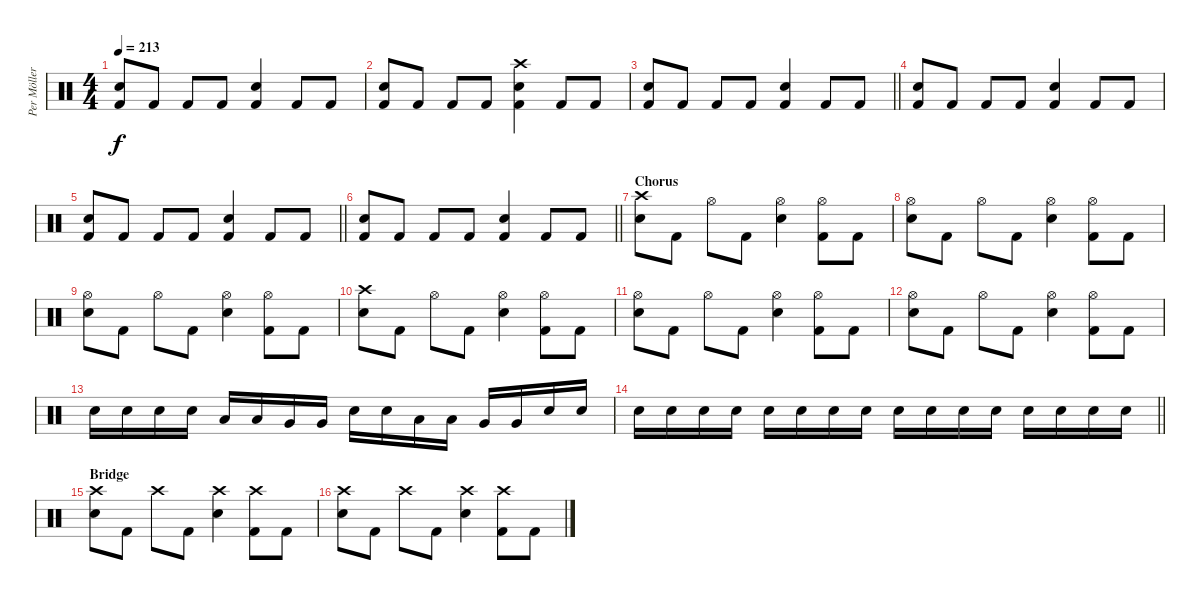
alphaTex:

\track ("Per Möller Jensen" "Per Möller") {instrument percussion}
\staff {score}
\articulation defaults
\ts (4 4)
\tempo 213
\clef neutral
\ks c
("Electric Snare (hit)" "Kick (hit) 2").8{dy f} "Kick (hit) 2".8 "Kick (hit) 2".8 "Kick (hit) 2".8 ("Electric Snare (hit)" "Kick (hit) 2").4 "Kick (hit) 2".8 "Kick (hit) 2".8 |
("Electric Snare (hit)" "Kick (hit) 2").8 "Kick (hit) 2".8 "Kick (hit) 2".8 "Kick (hit) 2".8 ("Crash high (hit)" "Electric Snare (hit)" "Kick (hit) 2").4 "Kick (hit) 2".8 "Kick (hit) 2".8 |
\barLineRight lightlight
("Electric Snare (hit)" "Kick (hit) 2").8 "Kick (hit) 2".8 "Kick (hit) 2".8 "Kick (hit) 2".8 ("Electric Snare (hit)" "Kick (hit) 2").4 "Kick (hit) 2".8 "Kick (hit) 2".8 |
("Electric Snare (hit)" "Kick (hit) 2").8 "Kick (hit) 2".8 "Kick (hit) 2".8 "Kick (hit) 2".8 ("Electric Snare (hit)" "Kick (hit) 2").4 "Kick (hit) 2".8 "Kick (hit) 2".8 |
\barLineRight lightlight
("Electric Snare (hit)" "Kick (hit) 2").8 "Kick (hit) 2".8 "Kick (hit) 2".8 "Kick (hit) 2".8 ("Electric Snare (hit)" "Kick (hit) 2").4 "Kick (hit) 2".8 "Kick (hit) 2".8 |
\barLineRight lightlight
("Electric Snare (hit)" "Kick (hit) 2").8 "Kick (hit) 2".8 "Kick (hit) 2".8 "Kick (hit) 2".8 ("Electric Snare (hit)" "Kick (hit) 2").4 "Kick (hit) 2".8 "Kick (hit) 2".8 |
\section ("" "Chorus")
("Crash high (hit)" "Electric Snare (hit)").8 "Kick (hit) 2".8 "Hi-Hat (open)".8 "Kick (hit) 2".8 ("Hi-Hat (open)" "Electric Snare (hit)").4 ("Hi-Hat (open)" "Kick (hit) 2").8 "Kick (hit) 2".8 |
("Hi-Hat (open)" "Electric Snare (hit)").8 "Kick (hit) 2".8 "Hi-Hat (open)".8 "Kick (hit) 2".8 ("Hi-Hat (open)" "Electric Snare (hit)").4 ("Hi-Hat (open)" "Kick (hit) 2").8 "Kick (hit) 2".8 |
("Hi-Hat (open)" "Electric Snare (hit)").8 "Kick (hit) 2".8 "Hi-Hat (open)".8 "Kick (hit) 2".8 ("Hi-Hat (open)" "Electric Snare (hit)").4 ("Hi-Hat (open)" "Kick (hit) 2").8 "Kick (hit) 2".8 |
("Crash high (hit)" "Electric Snare (hit)").8 "Kick (hit) 2".8 "Hi-Hat (open)".8 "Kick (hit) 2".8 ("Hi-Hat (open)" "Electric Snare (hit)").4 ("Hi-Hat (open)" "Kick (hit) 2").8 "Kick (hit) 2".8 |
("Hi-Hat (open)" "Electric Snare (hit)").8 "Kick (hit) 2".8 "Hi-Hat (open)".8 "Kick (hit) 2".8 ("Hi-Hat (open)" "Electric Snare (hit)").4 ("Hi-Hat (open)" "Kick (hit) 2").8 "Kick (hit) 2".8 |
("Hi-Hat (open)" "Electric Snare (hit)").8 "Kick (hit) 2".8 "Hi-Hat (open)".8 "Kick (hit) 2".8 ("Hi-Hat (open)" "Electric Snare (hit)").4 ("Hi-Hat (open)" "Kick (hit) 2").8 "Kick (hit) 2".8 |
"Electric Snare (hit)".16 "Electric Snare (hit)".16 "Electric Snare (hit)".16 "Electric Snare (hit)".16 "Low Tom (hit)".16 "Low Tom (hit)".16 "Very Low Tom (hit)".16 "Very Low Tom (hit)".16 "Electric Snare (hit)".16 "Electric Snare (hit)".16 "Low Tom (hit)".16 "Low Tom (hit)".16 "Very Low Tom (hit)".16 "Very Low Tom (hit)".16 "Electric Snare (hit)".16 "Electric Snare (hit)".16 |
\barLineRight lightlight "Electric Snare (hit)".16 "Electric Snare (hit)".16 "Electric Snare (hit)".16 "Electric Snare (hit)".16 "Electric Snare (hit)".16 "Electric Snare (hit)".16 "Electric Snare (hit)".16 "Electric Snare (hit)".16 "Electric Snare (hit)".16 "Electric Snare (hit)".16 "Electric Snare (hit)".16 "Electric Snare (hit)".16 "Electric Snare (hit)".16 "Electric Snare (hit)".16 "Electric Snare (hit)".16 "Electric Snare (hit)".16
|
\section ("" "Bridge")
("Crash high (hit)" "Electric Snare (hit)").8 "Kick (hit) 2".8 "Crash high (hit)".8 "Kick (hit) 2".8 ("Crash high (hit)" "Electric Snare (hit)").4 ("Crash high (hit)" "Kick (hit) 2").8 "Kick (hit) 2".8 |
("Crash high (hit)" "Electric Snare (hit)").8 "Kick (hit) 2".8 "Crash high (hit)".8 "Kick (hit) 2".8 ("Crash high (hit)" "Electric Snare (hit)").4 ("Crash high (hit)" "Kick (hit) 2").8 "Kick (hit) 2".8
